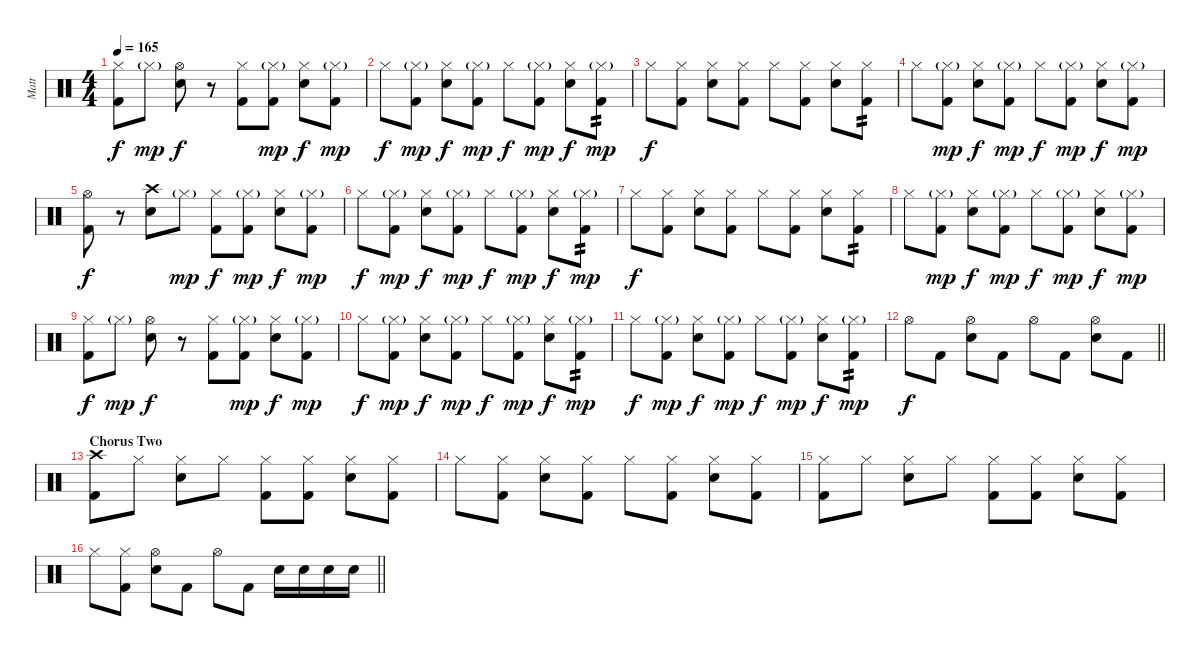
\track ("Matt" "Matt") {instrument percussion}
\staff {score}
\articulation defaults
\ts (4 4)
\tempo 165
\clef neutral
\ks c
("Hi-Hat (closed)" "Kick (hit) 2").8{dy f} "Hi-Hat (closed)"{g}.8{dy mp} ("Hi-Hat (open)" "Snare (hit) 2").8{dy f} r.8 ("Hi-Hat (closed)" "Kick (hit) 2").8 ("Hi-Hat (closed)"{g} "Kick (hit) 2").8{dy mp} ("Hi-Hat (closed)" "Snare (hit) 2").8{dy f} ("Hi-Hat (closed)"{g} "Kick (hit) 2").8{dy mp} |
"Hi-Hat (closed)".8{dy f} ("Hi-Hat (closed)"{g} "Kick (hit) 2").8{dy mp} ("Hi-Hat (closed)" "Snare (hit) 2").8{dy f} ("Hi-Hat (closed)"{g} "Kick (hit) 2").8{dy mp} "Hi-Hat (closed)".8{dy f} ("Hi-Hat (closed)"{g} "Kick (hit) 2").8{dy mp} ("Hi-Hat (closed)" "Snare (hit) 2").8{dy f} ("Hi-Hat (closed)"{g} "Kick (hit) 2").8{tp 2 dy mp} |
"Hi-Hat (closed)".8{dy f} ("Hi-Hat (closed)" "Kick (hit) 2").8 ("Hi-Hat (closed)" "Snare (hit) 2").8 ("Hi-Hat (closed)" "Kick (hit) 2").8 "Hi-Hat (closed)".8 ("Hi-Hat (closed)" "Kick (hit) 2").8 ("Hi-Hat (closed)" "Snare (hit) 2").8 ("Hi-Hat (closed)" "Kick (hit) 2").8{tp 2} |
"Hi-Hat (closed)".8 ("Hi-Hat (closed)"{g} "Kick (hit) 2").8{dy mp} ("Hi-Hat (closed)" "Snare (hit) 2").8{dy f} ("Hi-Hat (closed)"{g} "Kick (hit) 2").8{dy mp} "Hi-Hat (closed)".8{dy f} ("Hi-Hat (closed)"{g} "Kick (hit) 2").8{dy mp} ("Hi-Hat (closed)" "Snare (hit) 2").8{dy f} ("Hi-Hat (closed)"{g} "Kick (hit) 2").8{dy mp} |
("Hi-Hat (open)" "Kick (hit) 2").8{dy f} r.8 ("Crash high (hit)" "Snare (hit) 2").8 "Hi-Hat (closed)"{g}.8{dy mp} ("Hi-Hat (closed)" "Kick (hit) 2").8{dy f} ("Hi-Hat (closed)"{g} "Kick (hit) 2").8{dy mp} ("Hi-Hat (closed)" "Snare (hit) 2").8{dy f} ("Hi-Hat (closed)"{g} "Kick (hit) 2").8{dy mp} |
"Hi-Hat (closed)".8{dy f} ("Hi-Hat (closed)"{g} "Kick (hit) 2").8{dy mp} ("Hi-Hat (closed)" "Snare (hit) 2").8{dy f} ("Hi-Hat (closed)"{g} "Kick (hit) 2").8{dy mp} "Hi-Hat (closed)".8{dy f} ("Hi-Hat (closed)"{g} "Kick (hit) 2").8{dy mp} ("Hi-Hat (closed)" "Snare (hit) 2").8{dy f} ("Hi-Hat (closed)"{g} "Kick (hit) 2").8{tp 2 dy mp} |
"Hi-Hat (closed)".8{dy f} ("Hi-Hat (closed)" "Kick (hit) 2").8 ("Hi-Hat (closed)" "Snare (hit) 2").8 ("Hi-Hat (closed)" "Kick (hit) 2").8 "Hi-Hat (closed)".8 ("Hi-Hat (closed)" "Kick (hit) 2").8 ("Hi-Hat (closed)" "Snare (hit) 2").8 ("Hi-Hat (closed)" "Kick (hit) 2").8{tp 2} |
"Hi-Hat (closed)".8 ("Hi-Hat (closed)"{g} "Kick (hit) 2").8{dy mp} ("Hi-Hat (closed)" "Snare (hit) 2").8{dy f} ("Hi-Hat (closed)"{g} "Kick (hit) 2").8{dy mp} "Hi-Hat (closed)".8{dy f} ("Hi-Hat (closed)"{g} "Kick (hit) 2").8{dy mp} ("Hi-Hat (closed)" "Snare (hit) 2").8{dy f} ("Hi-Hat (closed)"{g} "Kick (hit) 2").8{dy mp} |
("Hi-Hat (closed)" "Kick (hit) 2").8{dy f} "Hi-Hat (closed)"{g}.8{dy mp} ("Hi-Hat (open)" "Snare (hit) 2").8{dy f} r.8 ("Hi-Hat (closed)" "Kick (hit) 2").8 ("Hi-Hat (closed)"{g} "Kick (hit) 2").8{dy mp} ("Hi-Hat (closed)" "Snare (hit) 2").8{dy f} ("Hi-Hat (closed)"{g} "Kick (hit) 2").8{dy mp} |
"Hi-Hat (closed)".8{dy f} ("Hi-Hat (closed)"{g} "Kick (hit) 2").8{dy mp} ("Hi-Hat (closed)" "Snare (hit) 2").8{dy f} ("Hi-Hat (closed)"{g} "Kick (hit) 2").8{dy mp} "Hi-Hat (closed)".8{dy f} ("Hi-Hat (closed)"{g} "Kick (hit) 2").8{dy mp} ("Hi-Hat (closed)" "Snare (hit) 2").8{dy f} ("Hi-Hat (closed)"{g} "Kick (hit) 2").8{tp 2 dy mp} |
"Hi-Hat (closed)".8{dy f} ("Hi-Hat (closed)"{g} "Kick (hit) 2").8{dy mp} ("Hi-Hat (closed)" "Snare (hit) 2").8{dy f} ("Hi-Hat (closed)"{g} "Kick (hit) 2").8{dy mp} "Hi-Hat (closed)".8{dy f} ("Hi-Hat (closed)"{g} "Kick (hit) 2").8{dy mp} ("Hi-Hat (closed)" "Snare (hit) 2").8{dy f} ("Hi-Hat (closed)"{g} "Kick (hit) 2").8{tp 2 dy mp} |
\barLineRight lightlight "Hi-Hat (open)".8{dy f} "Kick (hit) 2".8
("Hi-Hat (open)" "Snare (hit) 2").8 "Kick (hit) 2".8 "Hi-Hat (open)".8 "Kick (hit) 2".8 ("Hi-Hat (open)" "Snare (hit) 2").8 "Kick (hit) 2".8 |
\section ("" "Chorus Two")
("Crash high (hit)" "Kick (hit) 2").8 "Hi-Hat (closed)".8 ("Hi-Hat (closed)" "Snare (hit) 2").8 "Hi-Hat (closed)".8 ("Hi-Hat (closed)" "Kick (hit) 2").8 ("Hi-Hat (closed)" "Kick (hit) 2").8 ("Hi-Hat (closed)" "Snare (hit) 2").8 ("Hi-Hat (closed)" "Kick (hit) 2").8 |
"Hi-Hat (closed)".8 ("Hi-Hat (closed)" "Kick (hit) 2").8 ("Hi-Hat (closed)" "Snare (hit) 2").8 ("Hi-Hat (closed)" "Kick (hit) 2").8 "Hi-Hat (closed)".8 ("Hi-Hat (closed)" "Kick (hit) 2").8 ("Hi-Hat (closed)" "Snare (hit) 2").8 ("Hi-Hat (closed)" "Kick (hit) 2").8 |
("Hi-Hat (closed)" "Kick (hit) 2").8 "Hi-Hat (closed)".8 ("Hi-Hat (closed)" "Snare (hit) 2").8 "Hi-Hat (closed)".8 ("Hi-Hat (closed)" "Kick (hit) 2").8 ("Hi-Hat (closed)" "Kick (hit) 2").8 ("Hi-Hat (closed)" "Snare (hit) 2").8 ("Hi-Hat (closed)" "Kick (hit) 2").8 |
\barLineRight lightlight "Hi-Hat (closed)".8
("Hi-Hat (closed)" "Kick (hit) 2").8 ("Hi-Hat (open)" "Snare (hit) 2").8 "Kick (hit) 2".8 "Hi-Hat (open)".8 "Kick (hit) 2".8 "Snare (hit) 2".16 "Snare (hit) 2".16 "Snare (hit) 2".16 "Snare (hit) 2".16
